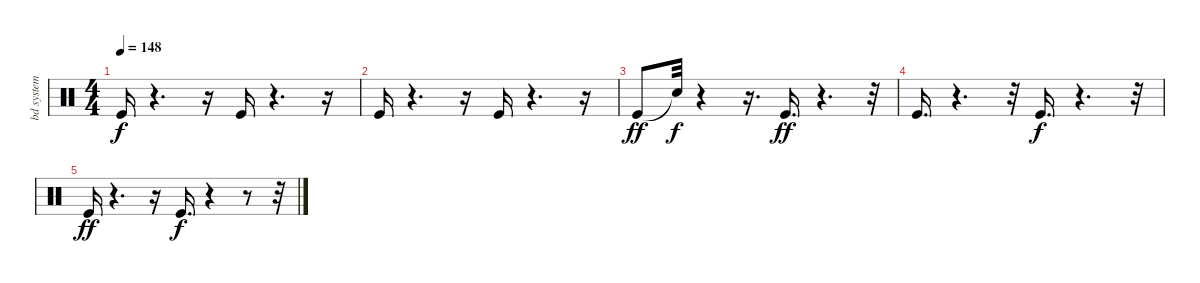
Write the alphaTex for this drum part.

\track ("bd system kits      " "bd system ") {instrument percussion}
\staff {score}
\articulation defaults
\ts (4 4)
\tempo 148
\clef neutral
\ks c "Kick (hit)".16{dy f}
r.4{d} r.16 "Kick (hit)".16 r.4{d} r.16 |
"Kick (hit)".16 r.4{d} r.16 "Kick (hit)".16 r.4{d} r.16 |
"Kick (hit)".8{dy ff} "Snare (hit)"{t}.32{dy f} r.4 r.16{d} "Kick (hit)".16{d dy ff} r.4{d} r.32 |
"Kick (hit)".16{d} r.4{d} r.32 "Kick (hit)".16{d dy f} r.4{d} r.32 |
"Kick (hit)".16{dy ff} r.4{d} r.16 "Kick (hit)".16{d dy f} r.4 r.8 r.32
